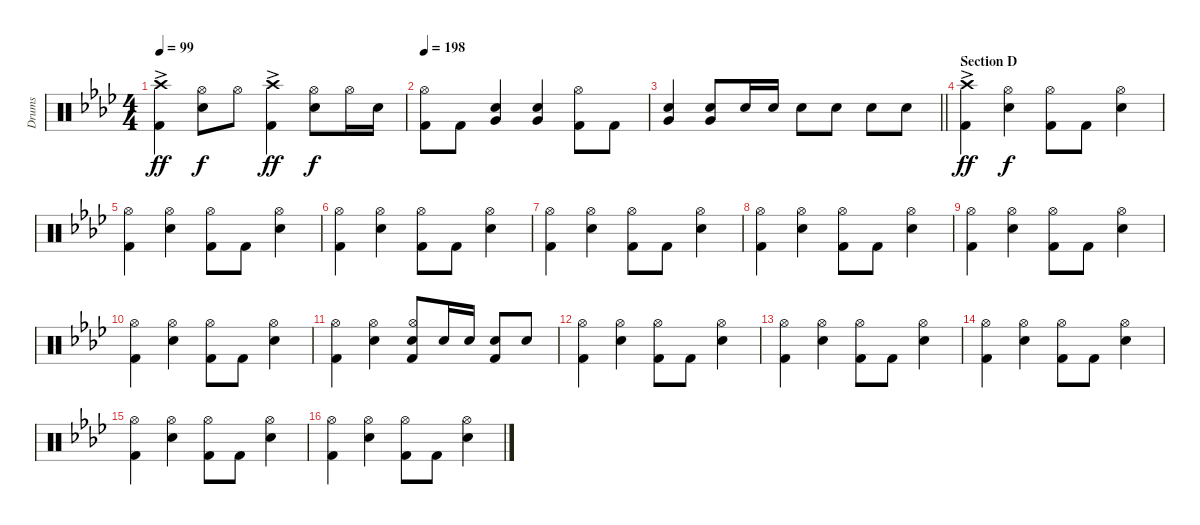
\track ("Drums" "Drums") {instrument percussion}
\staff {score}
\articulation defaults
\ts (4 4)
\tempo 99
\clef neutral
\ks ab
("Crash high (hit)"{ac} "Kick (hit) 2").4{dy ff} ("Hi-Hat (open)" "Snare (hit) 2").8{dy f} "Hi-Hat (open)".8 ("Crash high (hit)"{ac} "Kick (hit) 2").4{dy ff} ("Hi-Hat (open)" "Snare (hit) 2").8{dy f} "Hi-Hat (open)".16 "Snare (hit) 2".16 |
\tempo 198
("Hi-Hat (open)" "Kick (hit) 2").8 "Kick (hit) 2".8 ("Snare (hit) 2" "Very Low Tom (hit)").4 ("Snare (hit) 2" "Very Low Tom (hit)").4 ("Hi-Hat (open)" "Kick (hit) 2").8 "Kick (hit) 2".8 |
\barLineRight lightlight
("Snare (hit) 2" "Very Low Tom (hit)").4 ("Snare (hit) 2" "Very Low Tom (hit)").8 "Snare (hit) 2".16 "Snare (hit) 2".16 "Snare (hit) 2".8 "Snare (hit) 2".8 "Snare (hit) 2".8 "Snare (hit) 2".8 |
\section ("" "Section D")
("Crash high (hit)"{ac} "Kick (hit) 2").4{dy ff} ("Hi-Hat (open)" "Snare (hit) 2").4{dy f} ("Hi-Hat (open)" "Kick (hit) 2").8 "Kick (hit) 2".8 ("Hi-Hat (open)" "Snare (hit) 2").4 |
("Hi-Hat (open)" "Kick (hit) 2").4 ("Hi-Hat (open)" "Snare (hit) 2").4 ("Hi-Hat (open)" "Kick (hit) 2").8 "Kick (hit) 2".8 ("Hi-Hat (open)" "Snare (hit) 2").4 |
("Hi-Hat (open)" "Kick (hit) 2").4 ("Hi-Hat (open)" "Snare (hit) 2").4 ("Hi-Hat (open)" "Kick (hit) 2").8 "Kick (hit) 2".8 ("Hi-Hat (open)" "Snare (hit) 2").4 |
("Hi-Hat (open)" "Kick (hit) 2").4 ("Hi-Hat (open)" "Snare (hit) 2").4 ("Hi-Hat (open)" "Kick (hit) 2").8 "Kick (hit) 2".8 ("Hi-Hat (open)" "Snare (hit) 2").4 |
("Hi-Hat (open)" "Kick (hit) 2").4 ("Hi-Hat (open)" "Snare (hit) 2").4 ("Hi-Hat (open)" "Kick (hit) 2").8 "Kick (hit) 2".8 ("Hi-Hat (open)" "Snare (hit) 2").4 |
("Hi-Hat (open)" "Kick (hit) 2").4 ("Hi-Hat (open)" "Snare (hit) 2").4 ("Hi-Hat (open)" "Kick (hit) 2").8 "Kick (hit) 2".8 ("Hi-Hat (open)" "Snare (hit) 2").4 |
("Hi-Hat (open)" "Kick (hit) 2").4 ("Hi-Hat (open)" "Snare (hit) 2").4 ("Hi-Hat (open)" "Kick (hit) 2").8 "Kick (hit) 2".8 ("Hi-Hat (open)" "Snare (hit) 2").4 |
("Hi-Hat (open)" "Kick (hit) 2").4 ("Hi-Hat (open)" "Snare (hit) 2").4 ("Hi-Hat (open)" "Snare (hit) 2" "Kick (hit) 2").8 "Snare (hit) 2".16 "Snare (hit) 2".16 ("Snare (hit) 2" "Kick (hit) 2").8 "Snare (hit) 2".8 |
("Hi-Hat (open)" "Kick (hit) 2").4 ("Hi-Hat (open)" "Snare (hit) 2").4 ("Hi-Hat (open)" "Kick (hit) 2").8 "Kick (hit) 2".8 ("Hi-Hat (open)" "Snare (hit) 2").4 |
("Hi-Hat (open)" "Kick (hit) 2").4 ("Hi-Hat (open)" "Snare (hit) 2").4 ("Hi-Hat (open)" "Kick (hit) 2").8 "Kick (hit) 2".8 ("Hi-Hat (open)" "Snare (hit) 2").4 |
("Hi-Hat (open)" "Kick (hit) 2").4 ("Hi-Hat (open)" "Snare (hit) 2").4 ("Hi-Hat (open)" "Kick (hit) 2").8 "Kick (hit) 2".8 ("Hi-Hat (open)" "Snare (hit) 2").4 |
("Hi-Hat (open)" "Kick (hit) 2").4 ("Hi-Hat (open)" "Snare (hit) 2").4 ("Hi-Hat (open)" "Kick (hit) 2").8 "Kick (hit) 2".8 ("Hi-Hat (open)" "Snare (hit) 2").4 |
("Hi-Hat (open)" "Kick (hit) 2").4 ("Hi-Hat (open)" "Snare (hit) 2").4 ("Hi-Hat (open)" "Kick (hit) 2").8 "Kick (hit) 2".8 ("Hi-Hat (open)" "Snare (hit) 2").4
